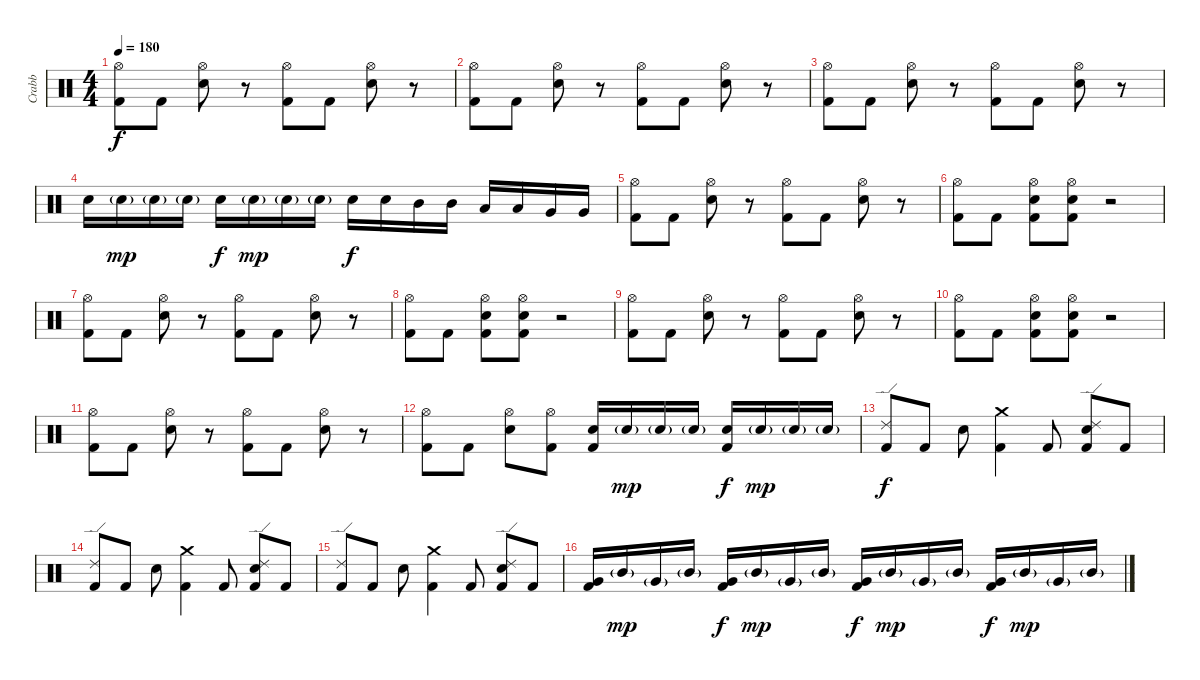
\track ("Crabb" "Crabb") {instrument percussion}
\staff {score}
\articulation defaults
\ts (4 4)
\tempo 180
\clef neutral
\ks c
("Hi-Hat (open)" "Kick (hit) 2").8{dy f} "Kick (hit) 2".8 ("Hi-Hat (open)" "Electric Snare (hit)").8 r.8 ("Hi-Hat (open)" "Kick (hit) 2").8 "Kick (hit) 2".8 ("Hi-Hat (open)" "Electric Snare (hit)").8 r.8 |
("Hi-Hat (open)" "Kick (hit) 2").8 "Kick (hit) 2".8 ("Hi-Hat (open)" "Electric Snare (hit)").8 r.8 ("Hi-Hat (open)" "Kick (hit) 2").8 "Kick (hit) 2".8 ("Hi-Hat (open)" "Electric Snare (hit)").8 r.8 |
("Hi-Hat (open)" "Kick (hit) 2").8 "Kick (hit) 2".8 ("Hi-Hat (open)" "Electric Snare (hit)").8 r.8 ("Hi-Hat (open)" "Kick (hit) 2").8 "Kick (hit) 2".8 ("Hi-Hat (open)" "Electric Snare (hit)").8 r.8 |
"Electric Snare (hit)".16 "Electric Snare (hit)"{g}.16{dy mp} "Electric Snare (hit)"{g}.16 "Electric Snare (hit)"{g}.16 "Electric Snare (hit)".16{dy f} "Electric Snare (hit)"{g}.16{dy mp} "Electric Snare (hit)"{g}.16 "Electric Snare (hit)"{g}.16 "Electric Snare (hit)".16{dy f} "Electric Snare (hit)".16 "Mid Tom (hit)".16 "Mid Tom (hit)".16 "Low Tom (hit)".16 "Low Tom (hit)".16 "Very Low Tom (hit)".16 "Very Low Tom (hit)".16 |
("Hi-Hat (open)" "Kick (hit) 2").8 "Kick (hit) 2".8 ("Hi-Hat (open)" "Electric Snare (hit)").8 r.8 ("Hi-Hat (open)" "Kick (hit) 2").8 "Kick (hit) 2".8 ("Hi-Hat (open)" "Electric Snare (hit)").8 r.8 |
("Hi-Hat (open)" "Kick (hit) 2").8 "Kick (hit) 2".8 ("Hi-Hat (open)" "Electric Snare (hit)" "Kick (hit) 2").8 ("Hi-Hat (open)" "Electric Snare (hit)" "Kick (hit) 2").8 r.2 |
("Hi-Hat (open)" "Kick (hit) 2").8 "Kick (hit) 2".8 ("Hi-Hat (open)" "Electric Snare (hit)").8 r.8 ("Hi-Hat (open)" "Kick (hit) 2").8 "Kick (hit) 2".8 ("Hi-Hat (open)" "Electric Snare (hit)").8 r.8 |
("Hi-Hat (open)" "Kick (hit) 2").8 "Kick (hit) 2".8 ("Hi-Hat (open)" "Electric Snare (hit)" "Kick (hit) 2").8 ("Hi-Hat (open)" "Electric Snare (hit)" "Kick (hit) 2").8 r.2 |
("Hi-Hat (open)" "Kick (hit) 2").8 "Kick (hit) 2".8 ("Hi-Hat (open)" "Electric Snare (hit)").8 r.8 ("Hi-Hat (open)" "Kick (hit) 2").8 "Kick (hit) 2".8 ("Hi-Hat (open)" "Electric Snare (hit)").8 r.8 |
("Hi-Hat (open)" "Kick (hit) 2").8 "Kick (hit) 2".8 ("Hi-Hat (open)" "Electric Snare (hit)" "Kick (hit) 2").8 ("Hi-Hat (open)" "Electric Snare (hit)" "Kick (hit) 2").8 r.2 |
("Hi-Hat (open)" "Kick (hit) 2").8 "Kick (hit) 2".8 ("Hi-Hat (open)" "Electric Snare (hit)").8 r.8 ("Hi-Hat (open)" "Kick (hit) 2").8 "Kick (hit) 2".8 ("Hi-Hat (open)" "Electric Snare (hit)").8 r.8 |
("Hi-Hat (open)" "Kick (hit) 2").8 "Kick (hit) 2".8 ("Hi-Hat (open)" "Electric Snare (hit)").8 ("Hi-Hat (open)" "Kick (hit) 2").8 ("Electric Snare (hit)" "Kick (hit) 2").16 "Electric Snare (hit)"{g}.16{dy mp} "Electric Snare (hit)"{g}.16 "Electric Snare (hit)"{g}.16 ("Electric Snare (hit)" "Kick (hit) 2").16{dy f} "Electric Snare (hit)"{g}.16{dy mp} "Electric Snare (hit)"{g}.16 "Electric Snare (hit)"{g}.16 |
("Ride (edge) 2" "Kick (hit) 2").8{dy f} "Kick (hit) 2".8 "Electric Snare (hit)".8 ("Crash medium (hit)" "Kick (hit) 2").4 "Kick (hit) 2".8 ("Ride (edge) 2" "Electric Snare (hit)" "Kick (hit) 2").8 "Kick (hit) 2".8 |
("Ride (edge) 2" "Kick (hit) 2").8 "Kick (hit) 2".8 "Electric Snare (hit)".8 ("Crash medium (hit)" "Kick (hit) 2").4 "Kick (hit) 2".8 ("Ride (edge) 2" "Electric Snare (hit)" "Kick (hit) 2").8 "Kick (hit) 2".8 |
("Ride (edge) 2" "Kick (hit) 2").8 "Kick (hit) 2".8 "Electric Snare (hit)".8 ("Crash medium (hit)" "Kick (hit) 2").4 "Kick (hit) 2".8 ("Ride (edge) 2" "Electric Snare (hit)" "Kick (hit) 2").8 "Kick (hit) 2".8 |
("Very Low Tom (hit)" "Kick (hit) 2").16 "Mid Tom (hit)"{g}.16{dy mp} "Very Low Tom (hit)"{g}.16 "Mid Tom (hit)"{g}.16 ("Very Low Tom (hit)" "Kick (hit) 2").16{dy f} "Mid Tom (hit)"{g}.16{dy mp} "Very Low Tom (hit)"{g}.16 "Mid Tom (hit)"{g}.16 ("Very Low Tom (hit)" "Kick (hit) 2").16{dy f} "Mid Tom (hit)"{g}.16{dy mp} "Very Low Tom (hit)"{g}.16 "Mid Tom (hit)"{g}.16 ("Very Low Tom (hit)" "Kick (hit) 2").16{dy f} "Mid Tom (hit)"{g}.16{dy mp} "Very Low Tom (hit)"{g}.16 "Mid Tom (hit)"{g}.16
